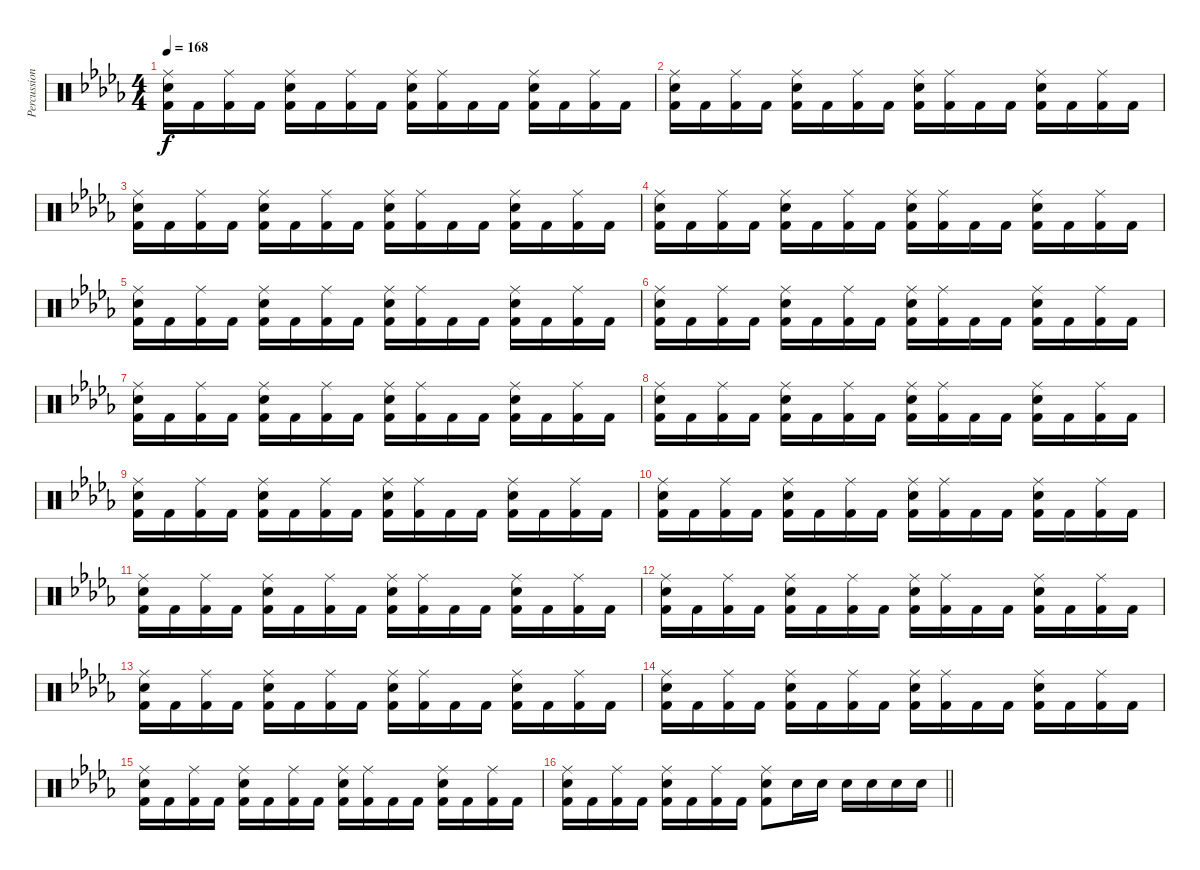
\track ("Percussion" "Percussion") {instrument percussion}
\staff {score}
\articulation defaults
\ts (4 4)
\tempo 168
\clef neutral
\ks db
("Ride (middle)" "Snare (hit) 2" "Kick (hit) 2").16{dy f} "Kick (hit) 2".16 ("Ride (middle)" "Kick (hit) 2").16 "Kick (hit) 2".16 ("Ride (middle)" "Snare (hit) 2" "Kick (hit) 2").16 "Kick (hit) 2".16 ("Ride (middle)" "Kick (hit) 2").16 "Kick (hit) 2".16 ("Ride (middle)" "Snare (hit) 2" "Kick (hit) 2").16 ("Ride (middle)" "Kick (hit) 2").16 "Kick (hit) 2".16 "Kick (hit) 2".16 ("Ride (middle)" "Snare (hit) 2" "Kick (hit) 2").16 "Kick (hit) 2".16 ("Ride (middle)" "Kick (hit) 2").16 "Kick (hit) 2".16 |
("Ride (middle)" "Snare (hit) 2" "Kick (hit) 2").16 "Kick (hit) 2".16 ("Ride (middle)" "Kick (hit) 2").16 "Kick (hit) 2".16 ("Ride (middle)" "Snare (hit) 2" "Kick (hit) 2").16 "Kick (hit) 2".16 ("Ride (middle)" "Kick (hit) 2").16 "Kick (hit) 2".16 ("Ride (middle)" "Snare (hit) 2" "Kick (hit) 2").16 ("Ride (middle)" "Kick (hit) 2").16 "Kick (hit) 2".16 "Kick (hit) 2".16 ("Ride (middle)" "Snare (hit) 2" "Kick (hit) 2").16 "Kick (hit) 2".16 ("Ride (middle)" "Kick (hit) 2").16 "Kick (hit) 2".16 |
("Ride (middle)" "Snare (hit) 2" "Kick (hit) 2").16 "Kick (hit) 2".16 ("Ride (middle)" "Kick (hit) 2").16 "Kick (hit) 2".16 ("Ride (middle)" "Snare (hit) 2" "Kick (hit) 2").16 "Kick (hit) 2".16 ("Ride (middle)" "Kick (hit) 2").16 "Kick (hit) 2".16 ("Ride (middle)" "Snare (hit) 2" "Kick (hit) 2").16 ("Ride (middle)" "Kick (hit) 2").16 "Kick (hit) 2".16 "Kick (hit) 2".16 ("Ride (middle)" "Snare (hit) 2" "Kick (hit) 2").16 "Kick (hit) 2".16 ("Ride (middle)" "Kick (hit) 2").16 "Kick (hit) 2".16 |
("Ride (middle)" "Snare (hit) 2" "Kick (hit) 2").16 "Kick (hit) 2".16 ("Ride (middle)" "Kick (hit) 2").16 "Kick (hit) 2".16 ("Ride (middle)" "Snare (hit) 2" "Kick (hit) 2").16 "Kick (hit) 2".16 ("Ride (middle)" "Kick (hit) 2").16 "Kick (hit) 2".16 ("Ride (middle)" "Snare (hit) 2" "Kick (hit) 2").16 ("Ride (middle)" "Kick (hit) 2").16 "Kick (hit) 2".16 "Kick (hit) 2".16 ("Ride (middle)" "Snare (hit) 2" "Kick (hit) 2").16 "Kick (hit) 2".16 ("Ride (middle)" "Kick (hit) 2").16 "Kick (hit) 2".16 |
("Ride (middle)" "Snare (hit) 2" "Kick (hit) 2").16 "Kick (hit) 2".16 ("Ride (middle)" "Kick (hit) 2").16 "Kick (hit) 2".16 ("Ride (middle)" "Snare (hit) 2" "Kick (hit) 2").16 "Kick (hit) 2".16 ("Ride (middle)" "Kick (hit) 2").16 "Kick (hit) 2".16 ("Ride (middle)" "Snare (hit) 2" "Kick (hit) 2").16 ("Ride (middle)" "Kick (hit) 2").16 "Kick (hit) 2".16 "Kick (hit) 2".16 ("Ride (middle)" "Snare (hit) 2" "Kick (hit) 2").16 "Kick (hit) 2".16 ("Ride (middle)" "Kick (hit) 2").16 "Kick (hit) 2".16 |
("Ride (middle)" "Snare (hit) 2" "Kick (hit) 2").16 "Kick (hit) 2".16 ("Ride (middle)" "Kick (hit) 2").16 "Kick (hit) 2".16 ("Ride (middle)" "Snare (hit) 2" "Kick (hit) 2").16 "Kick (hit) 2".16 ("Ride (middle)" "Kick (hit) 2").16 "Kick (hit) 2".16 ("Ride (middle)" "Snare (hit) 2" "Kick (hit) 2").16 ("Ride (middle)" "Kick (hit) 2").16 "Kick (hit) 2".16 "Kick (hit) 2".16 ("Ride (middle)" "Snare (hit) 2" "Kick (hit) 2").16 "Kick (hit) 2".16 ("Ride (middle)" "Kick (hit) 2").16 "Kick (hit) 2".16 |
("Ride (middle)" "Snare (hit) 2" "Kick (hit) 2").16 "Kick (hit) 2".16 ("Ride (middle)" "Kick (hit) 2").16 "Kick (hit) 2".16 ("Ride (middle)" "Snare (hit) 2" "Kick (hit) 2").16 "Kick (hit) 2".16 ("Ride (middle)" "Kick (hit) 2").16 "Kick (hit) 2".16 ("Ride (middle)" "Snare (hit) 2" "Kick (hit) 2").16 ("Ride (middle)" "Kick (hit) 2").16 "Kick (hit) 2".16 "Kick (hit) 2".16 ("Ride (middle)" "Snare (hit) 2" "Kick (hit) 2").16 "Kick (hit) 2".16 ("Ride (middle)" "Kick (hit) 2").16 "Kick (hit) 2".16 |
("Ride (middle)" "Snare (hit) 2" "Kick (hit) 2").16 "Kick (hit) 2".16 ("Ride (middle)" "Kick (hit) 2").16 "Kick (hit) 2".16 ("Ride (middle)" "Snare (hit) 2" "Kick (hit) 2").16 "Kick (hit) 2".16 ("Ride (middle)" "Kick (hit) 2").16 "Kick (hit) 2".16 ("Ride (middle)" "Snare (hit) 2" "Kick (hit) 2").16 ("Ride (middle)" "Kick (hit) 2").16 "Kick (hit) 2".16 "Kick (hit) 2".16 ("Ride (middle)" "Snare (hit) 2" "Kick (hit) 2").16 "Kick (hit) 2".16 ("Ride (middle)" "Kick (hit) 2").16 "Kick (hit) 2".16 |
("Ride (middle)" "Snare (hit) 2" "Kick (hit) 2").16 "Kick (hit) 2".16 ("Ride (middle)" "Kick (hit) 2").16 "Kick (hit) 2".16 ("Ride (middle)" "Snare (hit) 2" "Kick (hit) 2").16 "Kick (hit) 2".16 ("Ride (middle)" "Kick (hit) 2").16 "Kick (hit) 2".16 ("Ride (middle)" "Snare (hit) 2" "Kick (hit) 2").16 ("Ride (middle)" "Kick (hit) 2").16 "Kick (hit) 2".16 "Kick (hit) 2".16 ("Ride (middle)" "Snare (hit) 2" "Kick (hit) 2").16 "Kick (hit) 2".16 ("Ride (middle)" "Kick (hit) 2").16 "Kick (hit) 2".16 |
("Ride (middle)" "Snare (hit) 2" "Kick (hit) 2").16 "Kick (hit) 2".16 ("Ride (middle)" "Kick (hit) 2").16 "Kick (hit) 2".16 ("Ride (middle)" "Snare (hit) 2" "Kick (hit) 2").16 "Kick (hit) 2".16 ("Ride (middle)" "Kick (hit) 2").16 "Kick (hit) 2".16 ("Ride (middle)" "Snare (hit) 2" "Kick (hit) 2").16 ("Ride (middle)" "Kick (hit) 2").16 "Kick (hit) 2".16 "Kick (hit) 2".16 ("Ride (middle)" "Snare (hit) 2" "Kick (hit) 2").16 "Kick (hit) 2".16 ("Ride (middle)" "Kick (hit) 2").16 "Kick (hit) 2".16 |
("Ride (middle)" "Snare (hit) 2" "Kick (hit) 2").16 "Kick (hit) 2".16 ("Ride (middle)" "Kick (hit) 2").16 "Kick (hit) 2".16 ("Ride (middle)" "Snare (hit) 2" "Kick (hit) 2").16 "Kick (hit) 2".16 ("Ride (middle)" "Kick (hit) 2").16 "Kick (hit) 2".16 ("Ride (middle)" "Snare (hit) 2" "Kick (hit) 2").16 ("Ride (middle)" "Kick (hit) 2").16 "Kick (hit) 2".16 "Kick (hit) 2".16 ("Ride (middle)" "Snare (hit) 2" "Kick (hit) 2").16 "Kick (hit) 2".16 ("Ride (middle)" "Kick (hit) 2").16 "Kick (hit) 2".16 |
("Ride (middle)" "Snare (hit) 2" "Kick (hit) 2").16 "Kick (hit) 2".16 ("Ride (middle)" "Kick (hit) 2").16 "Kick (hit) 2".16 ("Ride (middle)" "Snare (hit) 2" "Kick (hit) 2").16 "Kick (hit) 2".16 ("Ride (middle)" "Kick (hit) 2").16 "Kick (hit) 2".16 ("Ride (middle)" "Snare (hit) 2" "Kick (hit) 2").16 ("Ride (middle)" "Kick (hit) 2").16 "Kick (hit) 2".16 "Kick (hit) 2".16 ("Ride (middle)" "Snare (hit) 2" "Kick (hit) 2").16 "Kick (hit) 2".16 ("Ride (middle)" "Kick (hit) 2").16 "Kick (hit) 2".16 |
("Ride (middle)" "Snare (hit) 2" "Kick (hit) 2").16 "Kick (hit) 2".16 ("Ride (middle)" "Kick (hit) 2").16 "Kick (hit) 2".16 ("Ride (middle)" "Snare (hit) 2" "Kick (hit) 2").16 "Kick (hit) 2".16 ("Ride (middle)" "Kick (hit) 2").16 "Kick (hit) 2".16 ("Ride (middle)" "Snare (hit) 2" "Kick (hit) 2").16 ("Ride (middle)" "Kick (hit) 2").16 "Kick (hit) 2".16 "Kick (hit) 2".16 ("Ride (middle)" "Snare (hit) 2" "Kick (hit) 2").16 "Kick (hit) 2".16 ("Ride (middle)" "Kick (hit) 2").16 "Kick (hit) 2".16 |
("Ride (middle)" "Snare (hit) 2" "Kick (hit) 2").16 "Kick (hit) 2".16 ("Ride (middle)" "Kick (hit) 2").16 "Kick (hit) 2".16 ("Ride (middle)" "Snare (hit) 2" "Kick (hit) 2").16 "Kick (hit) 2".16 ("Ride (middle)" "Kick (hit) 2").16 "Kick (hit) 2".16 ("Ride (middle)" "Snare (hit) 2" "Kick (hit) 2").16 ("Ride (middle)" "Kick (hit) 2").16 "Kick (hit) 2".16 "Kick (hit) 2".16 ("Ride (middle)" "Snare (hit) 2" "Kick (hit) 2").16 "Kick (hit) 2".16 ("Ride (middle)" "Kick (hit) 2").16 "Kick (hit) 2".16 |
("Ride (middle)" "Snare (hit) 2" "Kick (hit) 2").16 "Kick (hit) 2".16 ("Ride (middle)" "Kick (hit) 2").16 "Kick (hit) 2".16 ("Ride (middle)" "Snare (hit) 2" "Kick (hit) 2").16 "Kick (hit) 2".16 ("Ride (middle)" "Kick (hit) 2").16 "Kick (hit) 2".16 ("Ride (middle)" "Snare (hit) 2" "Kick (hit) 2").16 ("Ride (middle)" "Kick (hit) 2").16 "Kick (hit) 2".16 "Kick (hit) 2".16 ("Ride (middle)" "Snare (hit) 2" "Kick (hit) 2").16 "Kick (hit) 2".16 ("Ride (middle)" "Kick (hit) 2").16 "Kick (hit) 2".16 |
\barLineRight lightlight
("Ride (middle)" "Snare (hit) 2" "Kick (hit) 2").16 "Kick (hit) 2".16 ("Ride (middle)" "Kick (hit) 2").16 "Kick (hit) 2".16 ("Ride (middle)" "Snare (hit) 2" "Kick (hit) 2").16 "Kick (hit) 2".16 ("Ride (middle)" "Kick (hit) 2").16 "Kick (hit) 2".16 ("Ride (middle)" "Snare (hit) 2" "Kick (hit) 2").8 "Snare (hit) 2".16 "Snare (hit) 2".16 "Snare (hit) 2".16 "Snare (hit) 2".16 "Snare (hit) 2".16 "Snare (hit) 2".16
